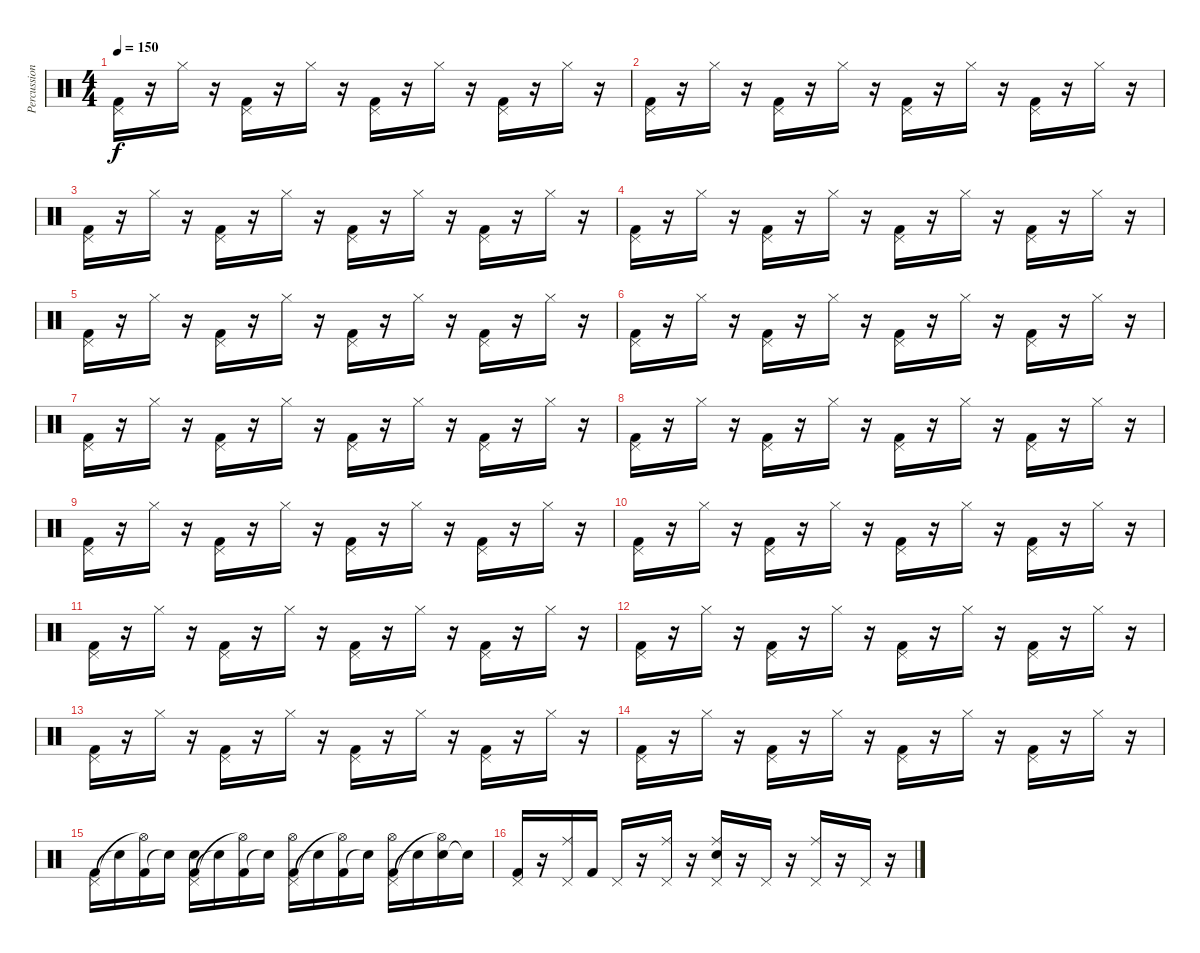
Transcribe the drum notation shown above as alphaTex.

\track ("Percussions" "Percussion") {instrument percussion}
\staff {score}
\articulation defaults
\ts (4 4)
\tempo 150
\clef neutral
\ks c
("Pedal Hi-Hat (hit)" "Kick (hit) 2").16{dy f} r.16 "Hi-Hat (closed)".16 r.16 ("Pedal Hi-Hat (hit)" "Kick (hit) 2").16 r.16 "Hi-Hat (closed)".16 r.16 ("Pedal Hi-Hat (hit)" "Kick (hit) 2").16 r.16 "Hi-Hat (closed)".16 r.16 ("Pedal Hi-Hat (hit)" "Kick (hit) 2").16 r.16 "Hi-Hat (closed)".16 r.16 |
("Pedal Hi-Hat (hit)" "Kick (hit) 2").16 r.16 "Hi-Hat (closed)".16 r.16 ("Pedal Hi-Hat (hit)" "Kick (hit) 2").16 r.16 "Hi-Hat (closed)".16 r.16 ("Pedal Hi-Hat (hit)" "Kick (hit) 2").16 r.16 "Hi-Hat (closed)".16 r.16 ("Pedal Hi-Hat (hit)" "Kick (hit) 2").16 r.16 "Hi-Hat (closed)".16 r.16 |
("Pedal Hi-Hat (hit)" "Kick (hit) 2").16 r.16 "Hi-Hat (closed)".16 r.16 ("Pedal Hi-Hat (hit)" "Kick (hit) 2").16 r.16 "Hi-Hat (closed)".16 r.16 ("Pedal Hi-Hat (hit)" "Kick (hit) 2").16 r.16 "Hi-Hat (closed)".16 r.16 ("Pedal Hi-Hat (hit)" "Kick (hit) 2").16 r.16 "Hi-Hat (closed)".16 r.16 |
("Pedal Hi-Hat (hit)" "Kick (hit) 2").16 r.16 "Hi-Hat (closed)".16 r.16 ("Pedal Hi-Hat (hit)" "Kick (hit) 2").16 r.16 "Hi-Hat (closed)".16 r.16 ("Pedal Hi-Hat (hit)" "Kick (hit) 2").16 r.16 "Hi-Hat (closed)".16 r.16 ("Pedal Hi-Hat (hit)" "Kick (hit) 2").16 r.16 "Hi-Hat (closed)".16 r.16 |
("Pedal Hi-Hat (hit)" "Kick (hit) 2").16 r.16 "Hi-Hat (closed)".16 r.16 ("Pedal Hi-Hat (hit)" "Kick (hit) 2").16 r.16 "Hi-Hat (closed)".16 r.16 ("Pedal Hi-Hat (hit)" "Kick (hit) 2").16 r.16 "Hi-Hat (closed)".16 r.16 ("Pedal Hi-Hat (hit)" "Kick (hit) 2").16 r.16 "Hi-Hat (closed)".16 r.16 |
("Pedal Hi-Hat (hit)" "Kick (hit) 2").16 r.16 "Hi-Hat (closed)".16 r.16 ("Pedal Hi-Hat (hit)" "Kick (hit) 2").16 r.16 "Hi-Hat (closed)".16 r.16 ("Pedal Hi-Hat (hit)" "Kick (hit) 2").16 r.16 "Hi-Hat (closed)".16 r.16 ("Pedal Hi-Hat (hit)" "Kick (hit) 2").16 r.16 "Hi-Hat (closed)".16 r.16 |
("Pedal Hi-Hat (hit)" "Kick (hit) 2").16 r.16 "Hi-Hat (closed)".16 r.16 ("Pedal Hi-Hat (hit)" "Kick (hit) 2").16 r.16 "Hi-Hat (closed)".16 r.16 ("Pedal Hi-Hat (hit)" "Kick (hit) 2").16 r.16 "Hi-Hat (closed)".16 r.16 ("Pedal Hi-Hat (hit)" "Kick (hit) 2").16 r.16 "Hi-Hat (closed)".16 r.16 |
("Pedal Hi-Hat (hit)" "Kick (hit) 2").16 r.16 "Hi-Hat (closed)".16 r.16 ("Pedal Hi-Hat (hit)" "Kick (hit) 2").16 r.16 "Hi-Hat (closed)".16 r.16 ("Pedal Hi-Hat (hit)" "Kick (hit) 2").16 r.16 "Hi-Hat (closed)".16 r.16 ("Pedal Hi-Hat (hit)" "Kick (hit) 2").16 r.16 "Hi-Hat (closed)".16 r.16 |
("Pedal Hi-Hat (hit)" "Kick (hit) 2").16 r.16 "Hi-Hat (closed)".16 r.16 ("Pedal Hi-Hat (hit)" "Kick (hit) 2").16 r.16 "Hi-Hat (closed)".16 r.16 ("Pedal Hi-Hat (hit)" "Kick (hit) 2").16 r.16 "Hi-Hat (closed)".16 r.16 ("Pedal Hi-Hat (hit)" "Kick (hit) 2").16 r.16 "Hi-Hat (closed)".16 r.16 |
("Pedal Hi-Hat (hit)" "Kick (hit) 2").16 r.16 "Hi-Hat (closed)".16 r.16 ("Pedal Hi-Hat (hit)" "Kick (hit) 2").16 r.16 "Hi-Hat (closed)".16 r.16 ("Pedal Hi-Hat (hit)" "Kick (hit) 2").16 r.16 "Hi-Hat (closed)".16 r.16 ("Pedal Hi-Hat (hit)" "Kick (hit) 2").16 r.16 "Hi-Hat (closed)".16 r.16 |
("Pedal Hi-Hat (hit)" "Kick (hit) 2").16 r.16 "Hi-Hat (closed)".16 r.16 ("Pedal Hi-Hat (hit)" "Kick (hit) 2").16 r.16 "Hi-Hat (closed)".16 r.16 ("Pedal Hi-Hat (hit)" "Kick (hit) 2").16 r.16 "Hi-Hat (closed)".16 r.16 ("Pedal Hi-Hat (hit)" "Kick (hit) 2").16 r.16 "Hi-Hat (closed)".16 r.16 |
("Pedal Hi-Hat (hit)" "Kick (hit) 2").16 r.16 "Hi-Hat (closed)".16 r.16 ("Pedal Hi-Hat (hit)" "Kick (hit) 2").16 r.16 "Hi-Hat (closed)".16 r.16 ("Pedal Hi-Hat (hit)" "Kick (hit) 2").16 r.16 "Hi-Hat (closed)".16 r.16 ("Pedal Hi-Hat (hit)" "Kick (hit) 2").16 r.16 "Hi-Hat (closed)".16 r.16 |
("Pedal Hi-Hat (hit)" "Kick (hit) 2").16 r.16 "Hi-Hat (closed)".16 r.16 ("Pedal Hi-Hat (hit)" "Kick (hit) 2").16 r.16 "Hi-Hat (closed)".16 r.16 ("Pedal Hi-Hat (hit)" "Kick (hit) 2").16 r.16 "Hi-Hat (closed)".16 r.16 ("Pedal Hi-Hat (hit)" "Kick (hit) 2").16 r.16 "Hi-Hat (closed)".16 r.16 |
("Pedal Hi-Hat (hit)" "Kick (hit) 2").16 r.16 "Hi-Hat (closed)".16 r.16 ("Pedal Hi-Hat (hit)" "Kick (hit) 2").16 r.16 "Hi-Hat (closed)".16 r.16 ("Pedal Hi-Hat (hit)" "Kick (hit) 2").16 r.16 "Hi-Hat (closed)".16 r.16 ("Pedal Hi-Hat (hit)" "Kick (hit) 2").16 r.16 "Hi-Hat (closed)".16 r.16 |
("Pedal Hi-Hat (hit)" "Kick (hit) 2").16 "Snare (hit)"{t}.16 ("Kick (hit) 2" "Hi-Hat (open)"{t}).16 "Snare (hit)"{t}.16 ("Pedal Hi-Hat (hit)" "Kick (hit) 2" "Snare (hit)").16 "Snare (hit)"{t}.16 ("Kick (hit) 2" "Hi-Hat (open)"{t}).16 "Snare (hit)"{t}.16 ("Pedal Hi-Hat (hit)" "Kick (hit) 2" "Hi-Hat (open)").16 "Snare (hit)"{t}.16 ("Kick (hit) 2" "Hi-Hat (open)"{t}).16 "Snare (hit)"{t}.16 ("Pedal Hi-Hat (hit)" "Kick (hit) 2" "Hi-Hat (open)").16 "Snare (hit)"{t}.16 ("Snare (hit) 2" "Hi-Hat (open)"{t}).16 "Snare (hit)"{t}.16 |
("Pedal Hi-Hat (hit)" "Kick (hit) 2").16 r.16 ("Pedal Hi-Hat (hit)" "Ride (middle)").16 "Kick (hit) 2".16 "Pedal Hi-Hat (hit)".16 r.16 ("Pedal Hi-Hat (hit)" "Ride (middle)").16 r.16 ("Pedal Hi-Hat (hit)" "Ride (middle)" "Snare (hit) 2").16 r.16 "Pedal Hi-Hat (hit)".16 r.16 ("Pedal Hi-Hat (hit)" "Ride (middle)").16 r.16 "Pedal Hi-Hat (hit)".16 r.16
